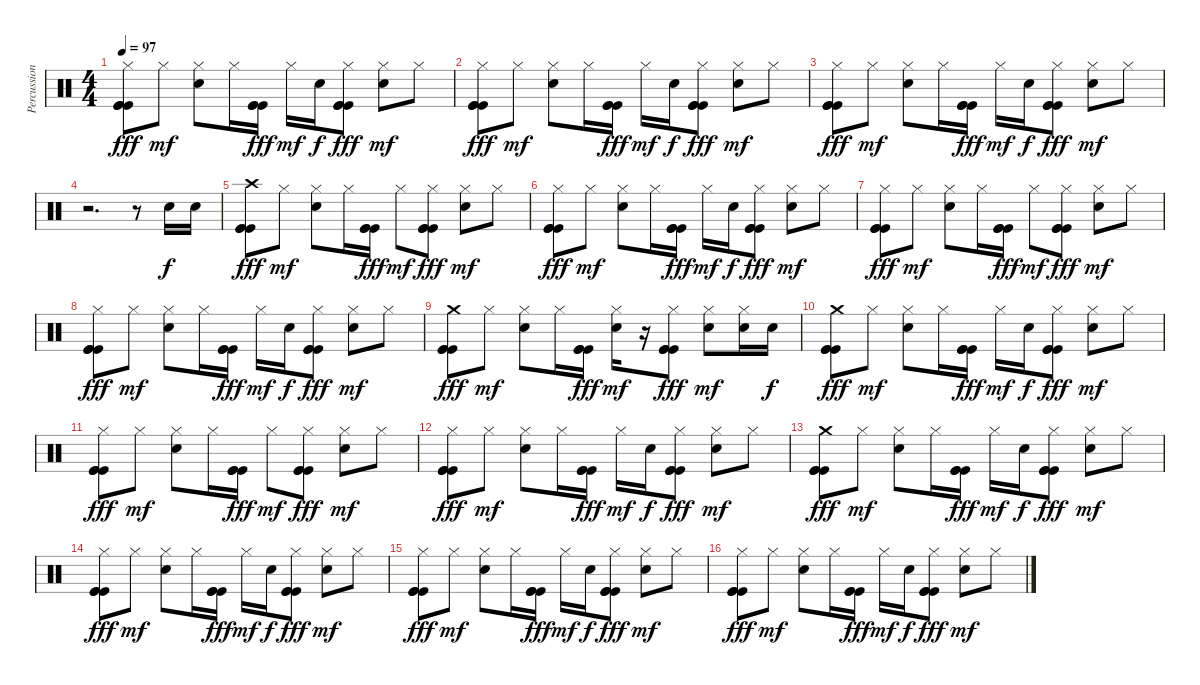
\track ("Percussions" "Percussion") {instrument percussion}
\staff {score}
\articulation defaults
\ts (4 4)
\tempo 97
\clef neutral
\ks c
("Hi-Hat (closed)" "Kick (hit)" "Kick (hit)" "Kick (hit)").8{dy fff} "Hi-Hat (closed)".8{dy mf} ("Hi-Hat (closed)" "Electric Snare (hit)").8 "Hi-Hat (closed)".16 ("Kick (hit)" "Kick (hit)" "Kick (hit)").16{dy fff} "Hi-Hat (closed)".16{dy mf} "Electric Snare (hit)".16{dy f} ("Hi-Hat (closed)" "Kick (hit)" "Kick (hit)" "Kick (hit)").8{dy fff} ("Hi-Hat (closed)" "Electric Snare (hit)").8{dy mf} "Hi-Hat (closed)".8 |
("Hi-Hat (closed)" "Kick (hit)" "Kick (hit)" "Kick (hit)").8{dy fff} "Hi-Hat (closed)".8{dy mf} ("Hi-Hat (closed)" "Electric Snare (hit)").8 "Hi-Hat (closed)".16 ("Kick (hit)" "Kick (hit)" "Kick (hit)").16{dy fff} "Hi-Hat (closed)".16{dy mf} "Electric Snare (hit)".16{dy f} ("Hi-Hat (closed)" "Kick (hit)" "Kick (hit)" "Kick (hit)").8{dy fff} ("Hi-Hat (closed)" "Electric Snare (hit)").8{dy mf} "Hi-Hat (closed)".8 |
("Hi-Hat (closed)" "Kick (hit)" "Kick (hit)" "Kick (hit)").8{dy fff} "Hi-Hat (closed)".8{dy mf} ("Hi-Hat (closed)" "Electric Snare (hit)").8 "Hi-Hat (closed)".16 ("Kick (hit)" "Kick (hit)" "Kick (hit)").16{dy fff} "Hi-Hat (closed)".16{dy mf} "Electric Snare (hit)".16{dy f} ("Hi-Hat (closed)" "Kick (hit)" "Kick (hit)" "Kick (hit)").8{dy fff} ("Hi-Hat (closed)" "Electric Snare (hit)").8{dy mf} "Hi-Hat (closed)".8 |
r.2{d} r.8 "Electric Snare (hit)".16{dy f} "Electric Snare (hit)".16 |
("Crash high (hit)" "Kick (hit)" "Kick (hit)" "Kick (hit)").8{dy fff} "Hi-Hat (closed)".8{dy mf} ("Hi-Hat (closed)" "Electric Snare (hit)").8 "Hi-Hat (closed)".16 ("Kick (hit)" "Kick (hit)" "Kick (hit)").16{dy fff} "Hi-Hat (closed)".8{dy mf} ("Hi-Hat (closed)" "Kick (hit)" "Kick (hit)" "Kick (hit)").8{dy fff} ("Hi-Hat (closed)" "Electric Snare (hit)").8{dy mf} "Hi-Hat (closed)".8 |
("Hi-Hat (closed)" "Kick (hit)" "Kick (hit)" "Kick (hit)").8{dy fff} "Hi-Hat (closed)".8{dy mf} ("Hi-Hat (closed)" "Electric Snare (hit)").8 "Hi-Hat (closed)".16 ("Kick (hit)" "Kick (hit)" "Kick (hit)").16{dy fff} "Hi-Hat (closed)".16{dy mf} "Electric Snare (hit)".16{dy f} ("Hi-Hat (closed)" "Kick (hit)" "Kick (hit)" "Kick (hit)").8{dy fff} ("Hi-Hat (closed)" "Electric Snare (hit)").8{dy mf} "Hi-Hat (closed)".8 |
("Hi-Hat (closed)" "Kick (hit)" "Kick (hit)" "Kick (hit)").8{dy fff} "Hi-Hat (closed)".8{dy mf} ("Hi-Hat (closed)" "Electric Snare (hit)").8 "Hi-Hat (closed)".16 ("Kick (hit)" "Kick (hit)" "Kick (hit)").16{dy fff} "Hi-Hat (closed)".8{dy mf} ("Hi-Hat (closed)" "Kick (hit)" "Kick (hit)" "Kick (hit)").8{dy fff} ("Hi-Hat (closed)" "Electric Snare (hit)").8{dy mf} "Hi-Hat (closed)".8 |
("Hi-Hat (closed)" "Kick (hit)" "Kick (hit)" "Kick (hit)").8{dy fff} "Hi-Hat (closed)".8{dy mf} ("Hi-Hat (closed)" "Electric Snare (hit)").8 "Hi-Hat (closed)".16 ("Kick (hit)" "Kick (hit)" "Kick (hit)").16{dy fff} "Hi-Hat (closed)".16{dy mf} "Electric Snare (hit)".16{dy f} ("Hi-Hat (closed)" "Kick (hit)" "Kick (hit)" "Kick (hit)").8{dy fff} ("Hi-Hat (closed)" "Electric Snare (hit)").8{dy mf} "Hi-Hat (closed)".8 |
("Crash medium (hit)" "Kick (hit)" "Kick (hit)" "Kick (hit)").8{dy fff} "Hi-Hat (closed)".8{dy mf} ("Hi-Hat (closed)" "Electric Snare (hit)").8 "Hi-Hat (closed)".16 ("Kick (hit)" "Kick (hit)" "Kick (hit)").16{dy fff} ("Hi-Hat (closed)" "Electric Snare (hit)").16{dy mf} r.16 ("Hi-Hat (closed)" "Kick (hit)" "Kick (hit)" "Kick (hit)").8{dy fff} ("Hi-Hat (closed)" "Electric Snare (hit)").8{dy mf} ("Hi-Hat (closed)" "Electric Snare (hit)").16 "Electric Snare (hit)".16{dy f} |
("Crash medium (hit)" "Kick (hit)" "Kick (hit)" "Kick (hit)").8{dy fff} "Hi-Hat (closed)".8{dy mf} ("Hi-Hat (closed)" "Electric Snare (hit)").8 "Hi-Hat (closed)".16 ("Kick (hit)" "Kick (hit)" "Kick (hit)").16{dy fff} "Hi-Hat (closed)".16{dy mf} "Electric Snare (hit)".16{dy f} ("Hi-Hat (closed)" "Kick (hit)" "Kick (hit)" "Kick (hit)").8{dy fff} ("Hi-Hat (closed)" "Electric Snare (hit)").8{dy mf} "Hi-Hat (closed)".8 |
("Hi-Hat (closed)" "Kick (hit)" "Kick (hit)" "Kick (hit)").8{dy fff} "Hi-Hat (closed)".8{dy mf} ("Hi-Hat (closed)" "Electric Snare (hit)").8 "Hi-Hat (closed)".16 ("Kick (hit)" "Kick (hit)" "Kick (hit)").16{dy fff} "Hi-Hat (closed)".8{dy mf} ("Hi-Hat (closed)" "Kick (hit)" "Kick (hit)" "Kick (hit)").8{dy fff} ("Hi-Hat (closed)" "Electric Snare (hit)").8{dy mf} "Hi-Hat (closed)".8 |
("Hi-Hat (closed)" "Kick (hit)" "Kick (hit)" "Kick (hit)").8{dy fff} "Hi-Hat (closed)".8{dy mf} ("Hi-Hat (closed)" "Electric Snare (hit)").8 "Hi-Hat (closed)".16 ("Kick (hit)" "Kick (hit)" "Kick (hit)").16{dy fff} "Hi-Hat (closed)".16{dy mf} "Electric Snare (hit)".16{dy f} ("Hi-Hat (closed)" "Kick (hit)" "Kick (hit)" "Kick (hit)").8{dy fff} ("Hi-Hat (closed)" "Electric Snare (hit)").8{dy mf} "Hi-Hat (closed)".8 |
("Crash medium (hit)" "Kick (hit)" "Kick (hit)" "Kick (hit)").8{dy fff} "Hi-Hat (closed)".8{dy mf} ("Hi-Hat (closed)" "Electric Snare (hit)").8 "Hi-Hat (closed)".16 ("Kick (hit)" "Kick (hit)" "Kick (hit)").16{dy fff} "Hi-Hat (closed)".16{dy mf} "Electric Snare (hit)".16{dy f} ("Hi-Hat (closed)" "Kick (hit)" "Kick (hit)" "Kick (hit)").8{dy fff} ("Hi-Hat (closed)" "Electric Snare (hit)").8{dy mf} "Hi-Hat (closed)".8 |
("Hi-Hat (closed)" "Kick (hit)" "Kick (hit)" "Kick (hit)").8{dy fff} "Hi-Hat (closed)".8{dy mf} ("Hi-Hat (closed)" "Electric Snare (hit)").8 "Hi-Hat (closed)".16 ("Kick (hit)" "Kick (hit)" "Kick (hit)").16{dy fff} "Hi-Hat (closed)".16{dy mf} "Electric Snare (hit)".16{dy f} ("Hi-Hat (closed)" "Kick (hit)" "Kick (hit)" "Kick (hit)").8{dy fff} ("Hi-Hat (closed)" "Electric Snare (hit)").8{dy mf} "Hi-Hat (closed)".8 |
("Hi-Hat (closed)" "Kick (hit)" "Kick (hit)" "Kick (hit)").8{dy fff} "Hi-Hat (closed)".8{dy mf} ("Hi-Hat (closed)" "Electric Snare (hit)").8 "Hi-Hat (closed)".16 ("Kick (hit)" "Kick (hit)" "Kick (hit)").16{dy fff} "Hi-Hat (closed)".16{dy mf} "Electric Snare (hit)".16{dy f} ("Hi-Hat (closed)" "Kick (hit)" "Kick (hit)" "Kick (hit)").8{dy fff} ("Hi-Hat (closed)" "Electric Snare (hit)").8{dy mf} "Hi-Hat (closed)".8 |
("Hi-Hat (closed)" "Kick (hit)" "Kick (hit)" "Kick (hit)").8{dy fff} "Hi-Hat (closed)".8{dy mf} ("Hi-Hat (closed)" "Electric Snare (hit)").8 "Hi-Hat (closed)".16 ("Kick (hit)" "Kick (hit)" "Kick (hit)").16{dy fff} "Hi-Hat (closed)".16{dy mf} "Electric Snare (hit)".16{dy f} ("Hi-Hat (closed)" "Kick (hit)" "Kick (hit)" "Kick (hit)").8{dy fff} ("Hi-Hat (closed)" "Electric Snare (hit)").8{dy mf} "Hi-Hat (closed)".8
